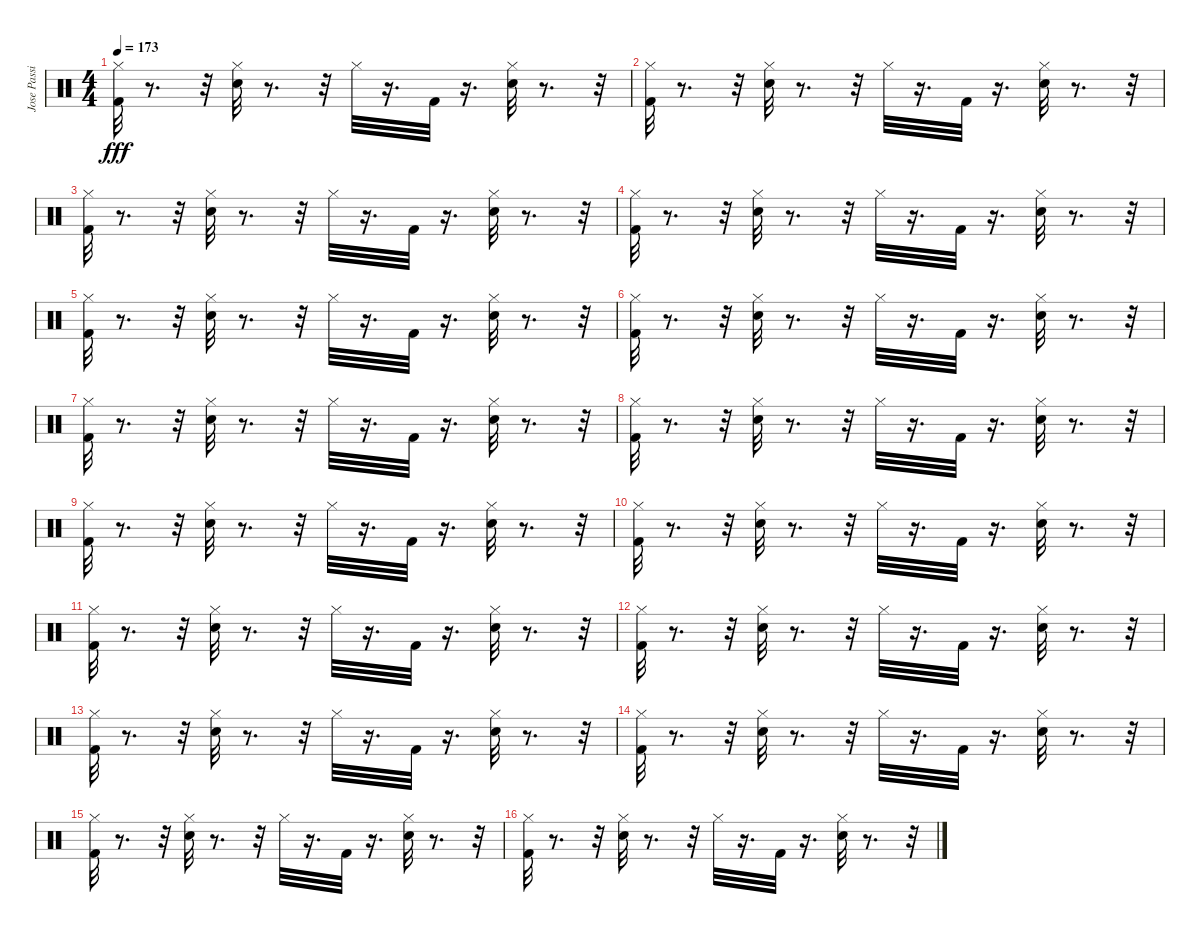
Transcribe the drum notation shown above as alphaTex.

\track ("Jose Passilas-Drums" "Jose Passi") {instrument percussion}
\staff {score}
\articulation defaults
\ts (4 4)
\tempo 173
\clef neutral
\ks c
("Hi-Hat (closed)" "Kick (hit) 2").32{dy fff} r.8{d} r.32 ("Electric Snare (hit)" "Hi-Hat (closed)").32 r.8{d} r.32 "Hi-Hat (closed)".32 r.16{d} "Kick (hit) 2".32 r.16{d} ("Electric Snare (hit)" "Hi-Hat (closed)").32 r.8{d} r.32 |
("Kick (hit) 2" "Hi-Hat (closed)").32 r.8{d} r.32 ("Electric Snare (hit)" "Hi-Hat (closed)").32 r.8{d} r.32 "Hi-Hat (closed)".32 r.16{d} "Kick (hit) 2".32 r.16{d} ("Electric Snare (hit)" "Hi-Hat (closed)").32 r.8{d} r.32 |
("Hi-Hat (closed)" "Kick (hit) 2").32 r.8{d} r.32 ("Electric Snare (hit)" "Hi-Hat (closed)").32 r.8{d} r.32 "Hi-Hat (closed)".32 r.16{d} "Kick (hit) 2".32 r.16{d} ("Electric Snare (hit)" "Hi-Hat (closed)").32 r.8{d} r.32 |
("Kick (hit) 2" "Hi-Hat (closed)").32 r.8{d} r.32 ("Electric Snare (hit)" "Hi-Hat (closed)").32 r.8{d} r.32 "Hi-Hat (closed)".32 r.16{d} "Kick (hit) 2".32 r.16{d} ("Electric Snare (hit)" "Hi-Hat (closed)").32 r.8{d} r.32 |
("Hi-Hat (closed)" "Kick (hit) 2").32 r.8{d} r.32 ("Electric Snare (hit)" "Hi-Hat (closed)").32 r.8{d} r.32 "Hi-Hat (closed)".32 r.16{d} "Kick (hit) 2".32 r.16{d} ("Electric Snare (hit)" "Hi-Hat (closed)").32 r.8{d} r.32 |
("Kick (hit) 2" "Hi-Hat (closed)").32 r.8{d} r.32 ("Electric Snare (hit)" "Hi-Hat (closed)").32 r.8{d} r.32 "Hi-Hat (closed)".32 r.16{d} "Kick (hit) 2".32 r.16{d} ("Electric Snare (hit)" "Hi-Hat (closed)").32 r.8{d} r.32 |
("Hi-Hat (closed)" "Kick (hit) 2").32 r.8{d} r.32 ("Electric Snare (hit)" "Hi-Hat (closed)").32 r.8{d} r.32 "Hi-Hat (closed)".32 r.16{d} "Kick (hit) 2".32 r.16{d} ("Electric Snare (hit)" "Hi-Hat (closed)").32 r.8{d} r.32 |
("Kick (hit) 2" "Hi-Hat (closed)").32 r.8{d} r.32 ("Electric Snare (hit)" "Hi-Hat (closed)").32 r.8{d} r.32 "Hi-Hat (closed)".32 r.16{d} "Kick (hit) 2".32 r.16{d} ("Electric Snare (hit)" "Hi-Hat (closed)").32 r.8{d} r.32 |
("Kick (hit) 2" "Hi-Hat (closed)").32 r.8{d} r.32 ("Hi-Hat (closed)" "Electric Snare (hit)").32 r.8{d} r.32 "Hi-Hat (closed)".32 r.16{d} "Kick (hit) 2".32 r.16{d} ("Hi-Hat (closed)" "Electric Snare (hit)").32 r.8{d} r.32 |
("Hi-Hat (closed)" "Kick (hit) 2").32 r.8{d} r.32 ("Hi-Hat (closed)" "Electric Snare (hit)").32 r.8{d} r.32 "Hi-Hat (closed)".32 r.16{d} "Kick (hit) 2".32 r.16{d} ("Hi-Hat (closed)" "Electric Snare (hit)").32 r.8{d} r.32 |
("Kick (hit) 2" "Hi-Hat (closed)").32 r.8{d} r.32 ("Hi-Hat (closed)" "Electric Snare (hit)").32 r.8{d} r.32 "Hi-Hat (closed)".32 r.16{d} "Kick (hit) 2".32 r.16{d} ("Hi-Hat (closed)" "Electric Snare (hit)").32 r.8{d} r.32 |
("Hi-Hat (closed)" "Kick (hit) 2").32 r.8{d} r.32 ("Hi-Hat (closed)" "Electric Snare (hit)").32 r.8{d} r.32 "Hi-Hat (closed)".32 r.16{d} "Kick (hit) 2".32 r.16{d} ("Hi-Hat (closed)" "Electric Snare (hit)").32 r.8{d} r.32 |
("Hi-Hat (closed)" "Kick (hit) 2").32 r.8{d} r.32 ("Electric Snare (hit)" "Hi-Hat (closed)").32 r.8{d} r.32 "Hi-Hat (closed)".32 r.16{d} "Kick (hit) 2".32 r.16{d} ("Electric Snare (hit)" "Hi-Hat (closed)").32 r.8{d} r.32 |
("Kick (hit) 2" "Hi-Hat (closed)").32 r.8{d} r.32 ("Electric Snare (hit)" "Hi-Hat (closed)").32 r.8{d} r.32 "Hi-Hat (closed)".32 r.16{d} "Kick (hit) 2".32 r.16{d} ("Electric Snare (hit)" "Hi-Hat (closed)").32 r.8{d} r.32 |
("Hi-Hat (closed)" "Kick (hit) 2").32 r.8{d} r.32 ("Electric Snare (hit)" "Hi-Hat (closed)").32 r.8{d} r.32 "Hi-Hat (closed)".32 r.16{d} "Kick (hit) 2".32 r.16{d} ("Electric Snare (hit)" "Hi-Hat (closed)").32 r.8{d} r.32 |
("Kick (hit) 2" "Hi-Hat (closed)").32 r.8{d} r.32 ("Electric Snare (hit)" "Hi-Hat (closed)").32 r.8{d} r.32 "Hi-Hat (closed)".32 r.16{d} "Kick (hit) 2".32 r.16{d} ("Electric Snare (hit)" "Hi-Hat (closed)").32 r.8{d} r.32
